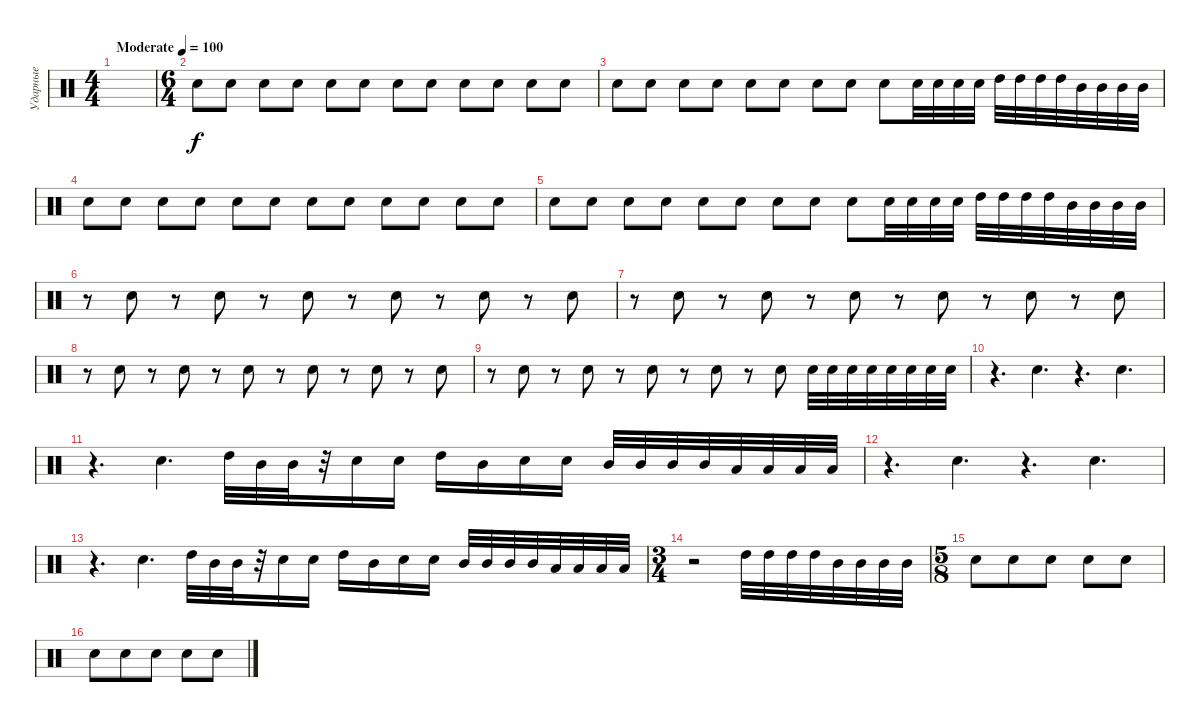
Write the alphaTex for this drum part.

\track ("Ударные" "Ударные") {instrument percussion}
\staff {score}
\articulation defaults
\ts (4 4)
\tempo (100 "Moderate")
\clef neutral
\ks c
|
\ts (6 4)
"Electric Snare (hit)".8 "Electric Snare (hit)".8 "Electric Snare (hit)".8 "Electric Snare (hit)".8 "Electric Snare (hit)".8 "Electric Snare (hit)".8 "Electric Snare (hit)".8 "Electric Snare (hit)".8 "Electric Snare (hit)".8 "Electric Snare (hit)".8 "Electric Snare (hit)".8 "Electric Snare (hit)".8 |
"Electric Snare (hit)".8 "Electric Snare (hit)".8 "Electric Snare (hit)".8 "Electric Snare (hit)".8 "Electric Snare (hit)".8 "Electric Snare (hit)".8 "Electric Snare (hit)".8 "Electric Snare (hit)".8 "Electric Snare (hit)".8 "Electric Snare (hit)".32 "Electric Snare (hit)".32 "Electric Snare (hit)".32 "Electric Snare (hit)".32 "High Tom (hit)".32 "High Tom (hit)".32 "High Tom (hit)".32 "High Tom (hit)".32 "Mid Tom (hit)".32 "Mid Tom (hit)".32 "Mid Tom (hit)".32 "Mid Tom (hit)".32 |
"Electric Snare (hit)".8 "Electric Snare (hit)".8 "Electric Snare (hit)".8 "Electric Snare (hit)".8 "Electric Snare (hit)".8 "Electric Snare (hit)".8 "Electric Snare (hit)".8 "Electric Snare (hit)".8 "Electric Snare (hit)".8 "Electric Snare (hit)".8 "Electric Snare (hit)".8 "Electric Snare (hit)".8 |
"Electric Snare (hit)".8 "Electric Snare (hit)".8 "Electric Snare (hit)".8 "Electric Snare (hit)".8 "Electric Snare (hit)".8 "Electric Snare (hit)".8 "Electric Snare (hit)".8 "Electric Snare (hit)".8 "Electric Snare (hit)".8 "Electric Snare (hit)".32 "Electric Snare (hit)".32 "Electric Snare (hit)".32 "Electric Snare (hit)".32 "High Tom (hit)".32 "High Tom (hit)".32 "High Tom (hit)".32 "High Tom (hit)".32 "Mid Tom (hit)".32 "Mid Tom (hit)".32 "Mid Tom (hit)".32 "Mid Tom (hit)".32 |
r.8 "Electric Snare (hit)".8 r.8 "Electric Snare (hit)".8 r.8 "Electric Snare (hit)".8 r.8 "Electric Snare (hit)".8 r.8 "Electric Snare (hit)".8 r.8 "Electric Snare (hit)".8 |
r.8 "Electric Snare (hit)".8 r.8 "Electric Snare (hit)".8 r.8 "Electric Snare (hit)".8 r.8 "Electric Snare (hit)".8 r.8 "Electric Snare (hit)".8 r.8 "Electric Snare (hit)".8 |
r.8 "Electric Snare (hit)".8 r.8 "Electric Snare (hit)".8 r.8 "Electric Snare (hit)".8 r.8 "Electric Snare (hit)".8 r.8 "Electric Snare (hit)".8 r.8 "Electric Snare (hit)".8 |
r.8 "Electric Snare (hit)".8 r.8 "Electric Snare (hit)".8 r.8 "Electric Snare (hit)".8 r.8 "Electric Snare (hit)".8 r.8 "Electric Snare (hit)".8 "Electric Snare (hit)".32 "Electric Snare (hit)".32 "Electric Snare (hit)".32 "Electric Snare (hit)".32 "Electric Snare (hit)".32 "Electric Snare (hit)".32 "Electric Snare (hit)".32 "Electric Snare (hit)".32 |
r.4{d} "Electric Snare (hit)".4{d} r.4{d} "Electric Snare (hit)".4{d} |
r.4{d} "Electric Snare (hit)".4{d} "High Tom (hit)".32 "Mid Tom (hit)".32 "Mid Tom (hit)".32 r.32 "Electric Snare (hit)".16 "Electric Snare (hit)".16 "High Tom (hit)".16 "Mid Tom (hit)".16 "Electric Snare (hit)".16 "Electric Snare (hit)".16 "Mid Tom (hit)".32 "Mid Tom (hit)".32 "Mid Tom (hit)".32 "Mid Tom (hit)".32 "Low Tom (hit)".32 "Low Tom (hit)".32 "Low Tom (hit)".32 "Low Tom (hit)".32 |
r.4{d} "Electric Snare (hit)".4{d} r.4{d} "Electric Snare (hit)".4{d} |
r.4{d} "Electric Snare (hit)".4{d} "High Tom (hit)".32 "Mid Tom (hit)".32 "Mid Tom (hit)".32 r.32 "Electric Snare (hit)".16 "Electric Snare (hit)".16 "High Tom (hit)".16 "Mid Tom (hit)".16 "Electric Snare (hit)".16 "Electric Snare (hit)".16 "Mid Tom (hit)".32 "Mid Tom (hit)".32 "Mid Tom (hit)".32 "Mid Tom (hit)".32 "Low Tom (hit)".32 "Low Tom (hit)".32 "Low Tom (hit)".32 "Low Tom (hit)".32 |
\ts (3 4)
r.2 "High Tom (hit)".32 "High Tom (hit)".32 "High Tom (hit)".32 "High Tom (hit)".32 "Mid Tom (hit)".32 "Mid Tom (hit)".32 "Mid Tom (hit)".32 "Mid Tom (hit)".32 |
\ts (5 8)
"Electric Snare (hit)".8 "Electric Snare (hit)".8 "Electric Snare (hit)".8 "Electric Snare (hit)".8 "Electric Snare (hit)".8 |
"Electric Snare (hit)".8 "Electric Snare (hit)".8 "Electric Snare (hit)".8 "Electric Snare (hit)".8 "Electric Snare (hit)".8
